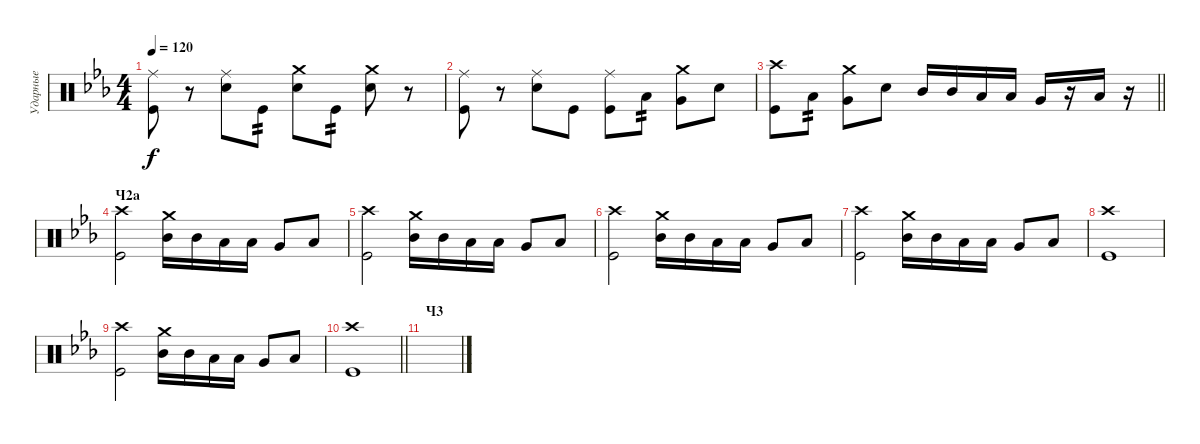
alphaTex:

\track ("Ударные" "Ударные") {instrument percussion}
\staff {score}
\articulation defaults
\ts (4 4)
\tempo 120
\clef neutral
\ks cminor
("Ride (middle)" "Kick (hit)").8{dy f} r.8 ("Ride (middle)" "Snare (hit) 2").8 "Kick (hit)".8{tp 2} ("Crash medium (hit)" "Snare (hit) 2").8 "Kick (hit)".8{tp 2} ("Crash medium (hit)" "Snare (hit) 2").8 r.8 |
("Ride (middle)" "Kick (hit)").8 r.8 ("Ride (middle)" "Snare (hit) 2").8 "Kick (hit)".8 ("Ride (middle)" "Kick (hit)").8 "Low Tom (hit)".8{tp 2} ("Crash medium (hit)" "Very Low Tom (hit)").8 "Snare (hit) 2".8 |
\barLineRight lightlight
("Crash high (hit)" "Kick (hit)").8 "Low Tom (hit)".8{tp 2} ("Crash medium (hit)" "Very Low Tom (hit)").8 "Snare (hit) 2".8 "Mid Tom (hit)".16 "Mid Tom (hit)".16 "Low Tom (hit)".16 "Low Tom (hit)".16 "Very Low Tom (hit)".16 r.16 "Low Floor Tom (hit)".16 r.16 |
\section ("" "Ч2а")
("Crash high (hit)" "Kick (hit)").2 ("Crash medium (hit)" "Mid Tom (hit)").16 "Mid Tom (hit)".16 "Low Tom (hit)".16 "Low Tom (hit)".16 "Very Low Tom (hit)".8 "Low Floor Tom (hit)".8 |
("Crash high (hit)" "Kick (hit)").2 ("Crash medium (hit)" "Mid Tom (hit)").16 "Mid Tom (hit)".16 "Low Tom (hit)".16 "Low Tom (hit)".16 "Very Low Tom (hit)".8 "Low Floor Tom (hit)".8 |
("Crash high (hit)" "Kick (hit)").2 ("Crash medium (hit)" "Mid Tom (hit)").16 "Mid Tom (hit)".16 "Low Tom (hit)".16 "Low Tom (hit)".16 "Very Low Tom (hit)".8 "Low Floor Tom (hit)".8 |
("Crash high (hit)" "Kick (hit)").2 ("Crash medium (hit)" "Mid Tom (hit)").16 "Mid Tom (hit)".16 "Low Tom (hit)".16 "Low Tom (hit)".16 "Very Low Tom (hit)".8 "Low Floor Tom (hit)".8 |
("Crash high (hit)" "Kick (hit)").1 |
("Crash high (hit)" "Kick (hit)").2 ("Crash medium (hit)" "Mid Tom (hit)").16 "Mid Tom (hit)".16 "Low Tom (hit)".16 "Low Tom (hit)".16 "Very Low Tom (hit)".8 "Low Floor Tom (hit)".8 |
\barLineRight lightlight
("Crash high (hit)" "Kick (hit)").1 |
\section ("" "Ч3")
